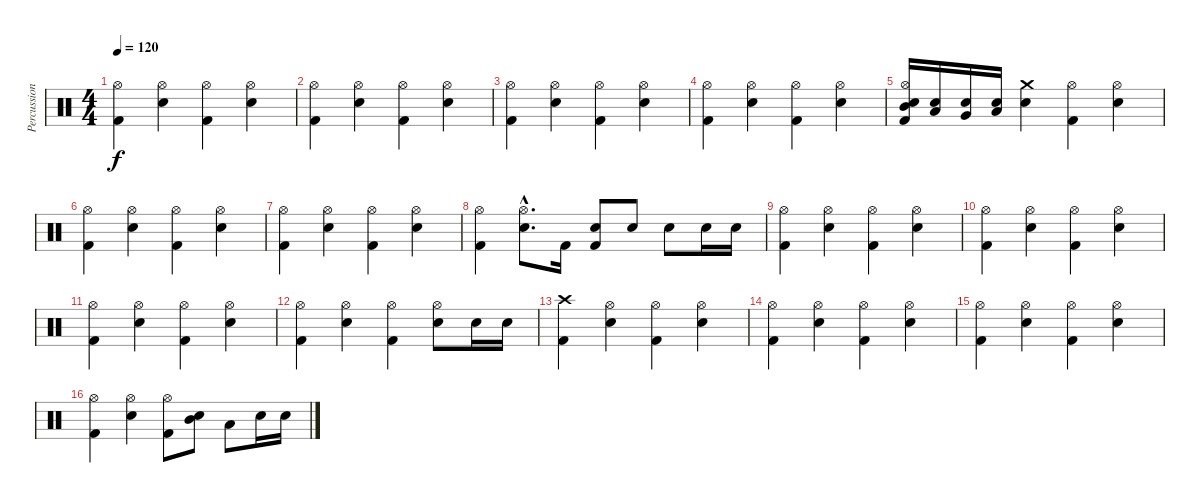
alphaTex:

\track ("Percussion" "Percussion") {instrument percussion}
\staff {score}
\articulation defaults
\ts (4 4)
\tempo 120
\clef neutral
\ks c
("Kick (hit) 2" "Hi-Hat (open)").4{dy f} ("Electric Snare (hit)" "Hi-Hat (open)").4 ("Kick (hit) 2" "Hi-Hat (open)").4 ("Electric Snare (hit)" "Hi-Hat (open)").4 |
("Kick (hit) 2" "Hi-Hat (open)").4 ("Electric Snare (hit)" "Hi-Hat (open)").4 ("Kick (hit) 2" "Hi-Hat (open)").4 ("Electric Snare (hit)" "Hi-Hat (open)").4 |
("Kick (hit) 2" "Hi-Hat (open)").4 ("Electric Snare (hit)" "Hi-Hat (open)").4 ("Kick (hit) 2" "Hi-Hat (open)").4 ("Electric Snare (hit)" "Hi-Hat (open)").4 |
("Kick (hit) 2" "Hi-Hat (open)").4 ("Electric Snare (hit)" "Hi-Hat (open)").4 ("Kick (hit) 2" "Hi-Hat (open)").4 ("Electric Snare (hit)" "Hi-Hat (open)").4 |
("Kick (hit) 2" "Hi-Hat (open)" "Mid Tom (hit)" "Electric Snare (hit)").16 ("Low Tom (hit)" "Electric Snare (hit)").16 ("Very Low Tom (hit)" "Electric Snare (hit)").16 ("Low Floor Tom (hit)" "Electric Snare (hit)").16 ("Electric Snare (hit)" "Crash medium (hit)").4 ("Kick (hit) 2" "Hi-Hat (open)").4 ("Electric Snare (hit)" "Hi-Hat (open)").4 |
("Kick (hit) 2" "Hi-Hat (open)").4 ("Electric Snare (hit)" "Hi-Hat (open)").4 ("Kick (hit) 2" "Hi-Hat (open)").4 ("Electric Snare (hit)" "Hi-Hat (open)").4 |
("Kick (hit) 2" "Hi-Hat (open)").4 ("Electric Snare (hit)" "Hi-Hat (open)").4 ("Kick (hit) 2" "Hi-Hat (open)").4 ("Electric Snare (hit)" "Hi-Hat (open)").4 |
("Kick (hit) 2" "Hi-Hat (open)").4 ("Electric Snare (hit)"{hac} "Hi-Hat (open)"{hac}).8{d} "Kick (hit) 2".16 ("Kick (hit) 2" "Electric Snare (hit)").8 "Electric Snare (hit)".8 "Electric Snare (hit)".8 "Electric Snare (hit)".16 "Electric Snare (hit)".16 |
("Kick (hit) 2" "Hi-Hat (open)").4 ("Electric Snare (hit)" "Hi-Hat (open)").4 ("Kick (hit) 2" "Hi-Hat (open)").4 ("Electric Snare (hit)" "Hi-Hat (open)").4 |
("Kick (hit) 2" "Hi-Hat (open)").4 ("Electric Snare (hit)" "Hi-Hat (open)").4 ("Kick (hit) 2" "Hi-Hat (open)").4 ("Electric Snare (hit)" "Hi-Hat (open)").4 |
("Kick (hit) 2" "Hi-Hat (open)").4 ("Electric Snare (hit)" "Hi-Hat (open)").4 ("Kick (hit) 2" "Hi-Hat (open)").4 ("Electric Snare (hit)" "Hi-Hat (open)").4 |
("Kick (hit) 2" "Hi-Hat (open)").4 ("Electric Snare (hit)" "Hi-Hat (open)").4 ("Kick (hit) 2" "Hi-Hat (open)").4 ("Electric Snare (hit)" "Hi-Hat (open)").8 "Electric Snare (hit)".16 "Electric Snare (hit)".16 |
("Kick (hit) 2" "Crash high (hit)").4 ("Electric Snare (hit)" "Hi-Hat (open)").4 ("Kick (hit) 2" "Hi-Hat (open)").4 ("Electric Snare (hit)" "Hi-Hat (open)").4 |
("Kick (hit) 2" "Hi-Hat (open)").4 ("Electric Snare (hit)" "Hi-Hat (open)").4 ("Kick (hit) 2" "Hi-Hat (open)").4 ("Electric Snare (hit)" "Hi-Hat (open)").4 |
("Kick (hit) 2" "Hi-Hat (open)").4 ("Electric Snare (hit)" "Hi-Hat (open)").4 ("Kick (hit) 2" "Hi-Hat (open)").4 ("Electric Snare (hit)" "Hi-Hat (open)").4 |
("Kick (hit) 2" "Hi-Hat (open)").4 ("Electric Snare (hit)" "Hi-Hat (open)").4 ("Kick (hit) 2" "Hi-Hat (open)").8 ("Mid Tom (hit)" "Electric Snare (hit)").8 "Low Tom (hit)".8 "Electric Snare (hit)".16 "Electric Snare (hit)".16
